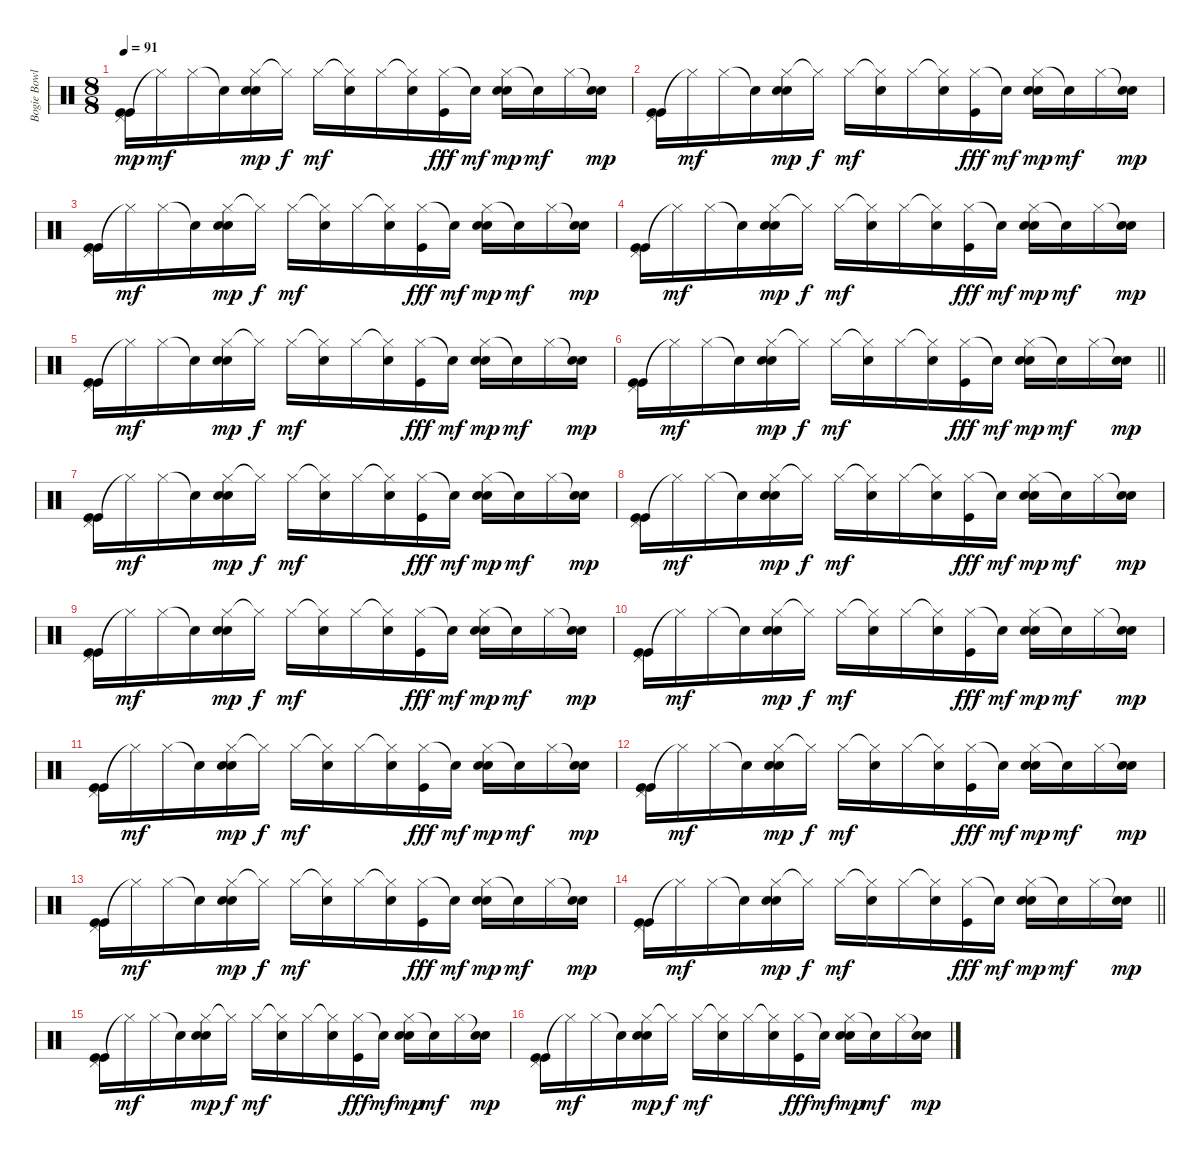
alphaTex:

\track ("Bogie Bowles Drums" "Bogie Bowl") {instrument percussion}
\staff {score}
\articulation defaults
\ts (8 8)
\tempo 91
\clef neutral
\ks c
("Pedal Hi-Hat (hit)" "Kick (hit)" "Kick (hit)").16{dy mp} "Hi-Hat (closed)"{t}.16{dy mf} "Hi-Hat (closed)".16 "Snare (hit)"{t}.16 ("Hi-Hat (closed)" "Snare (hit) 2" "Snare (hit) 2").16{dy mp} "Hi-Hat (closed)"{t}.16{dy f} "Hi-Hat (closed)".16{dy mf} ("Hi-Hat (closed)"{t} "Snare (hit) 2").16 "Hi-Hat (closed)".16 ("Hi-Hat (closed)"{t} "Snare (hit) 2").16 ("Hi-Hat (closed)" "Kick (hit)").16{dy fff} "Snare (hit)"{t}.16{dy mf} ("Hi-Hat (closed)" "Snare (hit) 2" "Snare (hit) 2").16{dy mp} "Snare (hit)"{t}.16{dy mf} "Hi-Hat (closed)".16 ("Snare (hit)"{t} "Snare (hit) 2").16{dy mp} |
("Pedal Hi-Hat (hit)" "Kick (hit)" "Kick (hit)").16 "Hi-Hat (closed)"{t}.16{dy mf} "Hi-Hat (closed)".16 "Snare (hit)"{t}.16 ("Hi-Hat (closed)" "Snare (hit) 2" "Snare (hit) 2").16{dy mp} "Hi-Hat (closed)"{t}.16{dy f} "Hi-Hat (closed)".16{dy mf} ("Hi-Hat (closed)"{t} "Snare (hit) 2").16 "Hi-Hat (closed)".16 ("Hi-Hat (closed)"{t} "Snare (hit) 2").16 ("Hi-Hat (closed)" "Kick (hit)").16{dy fff} "Snare (hit)"{t}.16{dy mf} ("Hi-Hat (closed)" "Snare (hit) 2" "Snare (hit) 2").16{dy mp} "Snare (hit)"{t}.16{dy mf} "Hi-Hat (closed)".16 ("Snare (hit)"{t} "Snare (hit) 2").16{dy mp} |
("Pedal Hi-Hat (hit)" "Kick (hit)" "Kick (hit)").16 "Hi-Hat (closed)"{t}.16{dy mf} "Hi-Hat (closed)".16 "Snare (hit)"{t}.16 ("Hi-Hat (closed)" "Snare (hit) 2" "Snare (hit) 2").16{dy mp} "Hi-Hat (closed)"{t}.16{dy f} "Hi-Hat (closed)".16{dy mf} ("Hi-Hat (closed)"{t} "Snare (hit) 2").16 "Hi-Hat (closed)".16 ("Hi-Hat (closed)"{t} "Snare (hit) 2").16 ("Hi-Hat (closed)" "Kick (hit)").16{dy fff} "Snare (hit)"{t}.16{dy mf} ("Hi-Hat (closed)" "Snare (hit) 2" "Snare (hit) 2").16{dy mp} "Snare (hit)"{t}.16{dy mf} "Hi-Hat (closed)".16 ("Snare (hit)"{t} "Snare (hit) 2").16{dy mp} |
("Pedal Hi-Hat (hit)" "Kick (hit)" "Kick (hit)").16 "Hi-Hat (closed)"{t}.16{dy mf} "Hi-Hat (closed)".16 "Snare (hit)"{t}.16 ("Hi-Hat (closed)" "Snare (hit) 2" "Snare (hit) 2").16{dy mp} "Hi-Hat (closed)"{t}.16{dy f} "Hi-Hat (closed)".16{dy mf} ("Hi-Hat (closed)"{t} "Snare (hit) 2").16 "Hi-Hat (closed)".16 ("Hi-Hat (closed)"{t} "Snare (hit) 2").16 ("Hi-Hat (closed)" "Kick (hit)").16{dy fff} "Snare (hit)"{t}.16{dy mf} ("Hi-Hat (closed)" "Snare (hit) 2" "Snare (hit) 2").16{dy mp} "Snare (hit)"{t}.16{dy mf} "Hi-Hat (closed)".16 ("Snare (hit)"{t} "Snare (hit) 2").16{dy mp} |
("Pedal Hi-Hat (hit)" "Kick (hit)" "Kick (hit)").16 "Hi-Hat (closed)"{t}.16{dy mf} "Hi-Hat (closed)".16 "Snare (hit)"{t}.16 ("Hi-Hat (closed)" "Snare (hit) 2" "Snare (hit) 2").16{dy mp} "Hi-Hat (closed)"{t}.16{dy f} "Hi-Hat (closed)".16{dy mf} ("Hi-Hat (closed)"{t} "Snare (hit) 2").16 "Hi-Hat (closed)".16 ("Hi-Hat (closed)"{t} "Snare (hit) 2").16 ("Hi-Hat (closed)" "Kick (hit)").16{dy fff} "Snare (hit)"{t}.16{dy mf} ("Hi-Hat (closed)" "Snare (hit) 2" "Snare (hit) 2").16{dy mp} "Snare (hit)"{t}.16{dy mf} "Hi-Hat (closed)".16 ("Snare (hit)"{t} "Snare (hit) 2").16{dy mp} |
\barLineRight lightlight
("Pedal Hi-Hat (hit)" "Kick (hit)" "Kick (hit)").16 "Hi-Hat (closed)"{t}.16{dy mf} "Hi-Hat (closed)".16 "Snare (hit)"{t}.16 ("Hi-Hat (closed)" "Snare (hit) 2" "Snare (hit) 2").16{dy mp} "Hi-Hat (closed)"{t}.16{dy f} "Hi-Hat (closed)".16{dy mf} ("Hi-Hat (closed)"{t} "Snare (hit) 2").16 "Hi-Hat (closed)".16 ("Hi-Hat (closed)"{t} "Snare (hit) 2").16 ("Hi-Hat (closed)" "Kick (hit)").16{dy fff} "Snare (hit)"{t}.16{dy mf} ("Hi-Hat (closed)" "Snare (hit) 2" "Snare (hit) 2").16{dy mp} "Snare (hit)"{t}.16{dy mf} "Hi-Hat (closed)".16 ("Snare (hit)"{t} "Snare (hit) 2").16{dy mp} |
("Pedal Hi-Hat (hit)" "Kick (hit)" "Kick (hit)").16 "Hi-Hat (closed)"{t}.16{dy mf} "Hi-Hat (closed)".16 "Snare (hit)"{t}.16 ("Hi-Hat (closed)" "Snare (hit) 2" "Snare (hit) 2").16{dy mp} "Hi-Hat (closed)"{t}.16{dy f} "Hi-Hat (closed)".16{dy mf} ("Hi-Hat (closed)"{t} "Snare (hit) 2").16 "Hi-Hat (closed)".16 ("Hi-Hat (closed)"{t} "Snare (hit) 2").16 ("Hi-Hat (closed)" "Kick (hit)").16{dy fff} "Snare (hit)"{t}.16{dy mf} ("Hi-Hat (closed)" "Snare (hit) 2" "Snare (hit) 2").16{dy mp} "Snare (hit)"{t}.16{dy mf} "Hi-Hat (closed)".16 ("Snare (hit)"{t} "Snare (hit) 2").16{dy mp} |
("Pedal Hi-Hat (hit)" "Kick (hit)" "Kick (hit)").16 "Hi-Hat (closed)"{t}.16{dy mf} "Hi-Hat (closed)".16 "Snare (hit)"{t}.16 ("Hi-Hat (closed)" "Snare (hit) 2" "Snare (hit) 2").16{dy mp} "Hi-Hat (closed)"{t}.16{dy f} "Hi-Hat (closed)".16{dy mf} ("Hi-Hat (closed)"{t} "Snare (hit) 2").16 "Hi-Hat (closed)".16 ("Hi-Hat (closed)"{t} "Snare (hit) 2").16 ("Hi-Hat (closed)" "Kick (hit)").16{dy fff} "Snare (hit)"{t}.16{dy mf} ("Hi-Hat (closed)" "Snare (hit) 2" "Snare (hit) 2").16{dy mp} "Snare (hit)"{t}.16{dy mf} "Hi-Hat (closed)".16 ("Snare (hit)"{t} "Snare (hit) 2").16{dy mp} |
("Pedal Hi-Hat (hit)" "Kick (hit)" "Kick (hit)").16 "Hi-Hat (closed)"{t}.16{dy mf} "Hi-Hat (closed)".16 "Snare (hit)"{t}.16 ("Hi-Hat (closed)" "Snare (hit) 2" "Snare (hit) 2").16{dy mp} "Hi-Hat (closed)"{t}.16{dy f} "Hi-Hat (closed)".16{dy mf} ("Hi-Hat (closed)"{t} "Snare (hit) 2").16 "Hi-Hat (closed)".16 ("Hi-Hat (closed)"{t} "Snare (hit) 2").16 ("Hi-Hat (closed)" "Kick (hit)").16{dy fff} "Snare (hit)"{t}.16{dy mf} ("Hi-Hat (closed)" "Snare (hit) 2" "Snare (hit) 2").16{dy mp} "Snare (hit)"{t}.16{dy mf} "Hi-Hat (closed)".16 ("Snare (hit)"{t} "Snare (hit) 2").16{dy mp} |
("Pedal Hi-Hat (hit)" "Kick (hit)" "Kick (hit)").16 "Hi-Hat (closed)"{t}.16{dy mf} "Hi-Hat (closed)".16 "Snare (hit)"{t}.16 ("Hi-Hat (closed)" "Snare (hit) 2" "Snare (hit) 2").16{dy mp} "Hi-Hat (closed)"{t}.16{dy f} "Hi-Hat (closed)".16{dy mf} ("Hi-Hat (closed)"{t} "Snare (hit) 2").16 "Hi-Hat (closed)".16 ("Hi-Hat (closed)"{t} "Snare (hit) 2").16 ("Hi-Hat (closed)" "Kick (hit)").16{dy fff} "Snare (hit)"{t}.16{dy mf} ("Hi-Hat (closed)" "Snare (hit) 2" "Snare (hit) 2").16{dy mp} "Snare (hit)"{t}.16{dy mf} "Hi-Hat (closed)".16 ("Snare (hit)"{t} "Snare (hit) 2").16{dy mp} |
("Pedal Hi-Hat (hit)" "Kick (hit)" "Kick (hit)").16 "Hi-Hat (closed)"{t}.16{dy mf} "Hi-Hat (closed)".16 "Snare (hit)"{t}.16 ("Hi-Hat (closed)" "Snare (hit) 2" "Snare (hit) 2").16{dy mp} "Hi-Hat (closed)"{t}.16{dy f} "Hi-Hat (closed)".16{dy mf} ("Hi-Hat (closed)"{t} "Snare (hit) 2").16 "Hi-Hat (closed)".16 ("Hi-Hat (closed)"{t} "Snare (hit) 2").16 ("Hi-Hat (closed)" "Kick (hit)").16{dy fff} "Snare (hit)"{t}.16{dy mf} ("Hi-Hat (closed)" "Snare (hit) 2" "Snare (hit) 2").16{dy mp} "Snare (hit)"{t}.16{dy mf} "Hi-Hat (closed)".16 ("Snare (hit)"{t} "Snare (hit) 2").16{dy mp} |
("Pedal Hi-Hat (hit)" "Kick (hit)" "Kick (hit)").16 "Hi-Hat (closed)"{t}.16{dy mf} "Hi-Hat (closed)".16 "Snare (hit)"{t}.16 ("Hi-Hat (closed)" "Snare (hit) 2" "Snare (hit) 2").16{dy mp} "Hi-Hat (closed)"{t}.16{dy f} "Hi-Hat (closed)".16{dy mf} ("Hi-Hat (closed)"{t} "Snare (hit) 2").16 "Hi-Hat (closed)".16 ("Hi-Hat (closed)"{t} "Snare (hit) 2").16 ("Hi-Hat (closed)" "Kick (hit)").16{dy fff} "Snare (hit)"{t}.16{dy mf} ("Hi-Hat (closed)" "Snare (hit) 2" "Snare (hit) 2").16{dy mp} "Snare (hit)"{t}.16{dy mf} "Hi-Hat (closed)".16 ("Snare (hit)"{t} "Snare (hit) 2").16{dy mp} |
("Pedal Hi-Hat (hit)" "Kick (hit)" "Kick (hit)").16 "Hi-Hat (closed)"{t}.16{dy mf} "Hi-Hat (closed)".16 "Snare (hit)"{t}.16 ("Hi-Hat (closed)" "Snare (hit) 2" "Snare (hit) 2").16{dy mp} "Hi-Hat (closed)"{t}.16{dy f} "Hi-Hat (closed)".16{dy mf} ("Hi-Hat (closed)"{t} "Snare (hit) 2").16 "Hi-Hat (closed)".16 ("Hi-Hat (closed)"{t} "Snare (hit) 2").16 ("Hi-Hat (closed)" "Kick (hit)").16{dy fff} "Snare (hit)"{t}.16{dy mf} ("Hi-Hat (closed)" "Snare (hit) 2" "Snare (hit) 2").16{dy mp} "Snare (hit)"{t}.16{dy mf} "Hi-Hat (closed)".16 ("Snare (hit)"{t} "Snare (hit) 2").16{dy mp} |
\barLineRight lightlight
("Pedal Hi-Hat (hit)" "Kick (hit)" "Kick (hit)").16 "Hi-Hat (closed)"{t}.16{dy mf} "Hi-Hat (closed)".16 "Snare (hit)"{t}.16 ("Hi-Hat (closed)" "Snare (hit) 2" "Snare (hit) 2").16{dy mp} "Hi-Hat (closed)"{t}.16{dy f} "Hi-Hat (closed)".16{dy mf} ("Hi-Hat (closed)"{t} "Snare (hit) 2").16 "Hi-Hat (closed)".16 ("Hi-Hat (closed)"{t} "Snare (hit) 2").16 ("Hi-Hat (closed)" "Kick (hit)").16{dy fff} "Snare (hit)"{t}.16{dy mf} ("Hi-Hat (closed)" "Snare (hit) 2" "Snare (hit) 2").16{dy mp} "Snare (hit)"{t}.16{dy mf} "Hi-Hat (closed)".16 ("Snare (hit)"{t} "Snare (hit) 2").16{dy mp} |
("Pedal Hi-Hat (hit)" "Kick (hit)" "Kick (hit)").16 "Hi-Hat (closed)"{t}.16{dy mf} "Hi-Hat (closed)".16 "Snare (hit)"{t}.16 ("Hi-Hat (closed)" "Snare (hit) 2" "Snare (hit) 2").16{dy mp} "Hi-Hat (closed)"{t}.16{dy f} "Hi-Hat (closed)".16{dy mf} ("Hi-Hat (closed)"{t} "Snare (hit) 2").16 "Hi-Hat (closed)".16 ("Hi-Hat (closed)"{t} "Snare (hit) 2").16 ("Hi-Hat (closed)" "Kick (hit)").16{dy fff} "Snare (hit)"{t}.16{dy mf} ("Hi-Hat (closed)" "Snare (hit) 2" "Snare (hit) 2").16{dy mp} "Snare (hit)"{t}.16{dy mf} "Hi-Hat (closed)".16 ("Snare (hit)"{t} "Snare (hit) 2").16{dy mp} |
("Pedal Hi-Hat (hit)" "Kick (hit)" "Kick (hit)").16 "Hi-Hat (closed)"{t}.16{dy mf} "Hi-Hat (closed)".16 "Snare (hit)"{t}.16 ("Hi-Hat (closed)" "Snare (hit) 2" "Snare (hit) 2").16{dy mp} "Hi-Hat (closed)"{t}.16{dy f} "Hi-Hat (closed)".16{dy mf} ("Hi-Hat (closed)"{t} "Snare (hit) 2").16 "Hi-Hat (closed)".16 ("Hi-Hat (closed)"{t} "Snare (hit) 2").16 ("Hi-Hat (closed)" "Kick (hit)").16{dy fff} "Snare (hit)"{t}.16{dy mf} ("Hi-Hat (closed)" "Snare (hit) 2" "Snare (hit) 2").16{dy mp} "Snare (hit)"{t}.16{dy mf} "Hi-Hat (closed)".16 ("Snare (hit)"{t} "Snare (hit) 2").16{dy mp}
